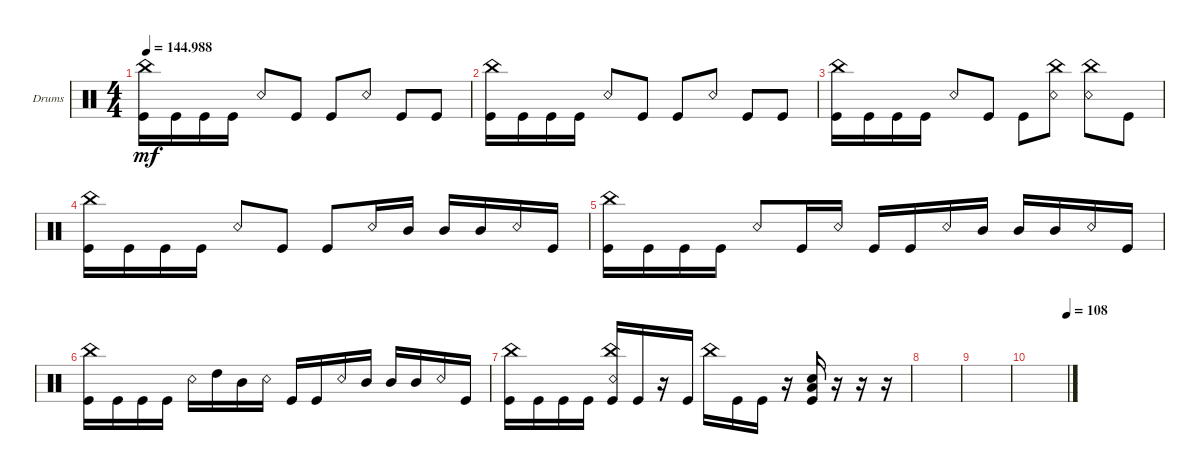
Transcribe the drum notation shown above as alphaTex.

\defaultSystemsLayout 4
\bracketExtendMode groupsimilarinstruments
\firstSystemTrackNameOrientation horizontal
\otherSystemsTrackNameOrientation horizontal
\track ("Drumkit" "Drums") {solo instrument percussion}
\staff {score}
\articulation defaults
\ts (4 4)
\tempo
144.988
\accidentals auto
\clef neutral
\ottava regular
\simile none
\ks c
("Kick (hit)" "China (hit)").16{dy mf} "Kick (hit)".16 "Kick (hit)".16 "Kick (hit)".16 "Snare (rim shot)".8 "Kick (hit)".8 "Kick (hit)".8 "Snare (rim shot)".8 "Kick (hit)".8 "Kick (hit)".8 |
("Kick (hit)" "China (hit)").16 "Kick (hit)".16 "Kick (hit)".16 "Kick (hit)".16 "Snare (rim shot)".8 "Kick (hit)".8 "Kick (hit)".8 "Snare (rim shot)".8 "Kick (hit)".8 "Kick (hit)".8 |
("Kick (hit)" "China (hit)").16 "Kick (hit)".16 "Kick (hit)".16 "Kick (hit)".16 "Snare (rim shot)".8 "Kick (hit)".8 "Kick (hit)".8 ("Snare (rim shot)" "China (hit)").8 ("China (hit)" "Snare (rim shot)").8 "Kick (hit)".8 |
("Kick (hit)" "China (hit)").16 "Kick (hit)".16 "Kick (hit)".16 "Kick (hit)".16 "Snare (rim shot)".8 "Kick (hit)".8 "Kick (hit)".8 "Snare (rim shot)".16 "Mid Tom (hit)".16 "Mid Tom (hit)".16 "Mid Tom (hit)".16 "Snare (rim shot)".16 "Kick (hit)".16 |
("Kick (hit)" "China (hit)").16 "Kick (hit)".16 "Kick (hit)".16 "Kick (hit)".16 "Snare (rim shot)".8 "Kick (hit)".16 "Snare (rim shot)".16 "Kick (hit)".16 "Kick (hit)".16 "Snare (rim shot)".16 "Mid Tom (hit)".16 "Mid Tom (hit)".16 "Mid Tom (hit)".16 "Snare (rim shot)".16 "Kick (hit)".16 |
("Kick (hit)" "China (hit)").16 "Kick (hit)".16 "Kick (hit)".16 "Kick (hit)".16 "Snare (rim shot)".16 "High Tom (hit)".16 "Mid Tom (hit)".16 "Snare (rim shot)".16 "Kick (hit)".16 "Kick (hit)".16 "Snare (rim shot)".16 "Mid Tom (hit)".16 "Mid Tom (hit)".16 "Mid Tom (hit)".16 "Snare (rim shot)".16 "Kick (hit)".16 |
("Kick (hit)" "China (hit)").16 "Kick (hit)".16 "Kick (hit)".16 "Kick (hit)".16 ("Kick (hit)" "China (hit)" "Snare (rim shot)").16 "Kick (hit)".16 r.16 "Kick (hit)".16 "China (hit)".16 "Kick (hit)".16 "Kick (hit)".16 r.16 ("Kick (hit)" "Low Tom (hit)" "Snare (hit) 2").16 r.16 r.16 r.16 |
|
|
\tempo (108 1)
